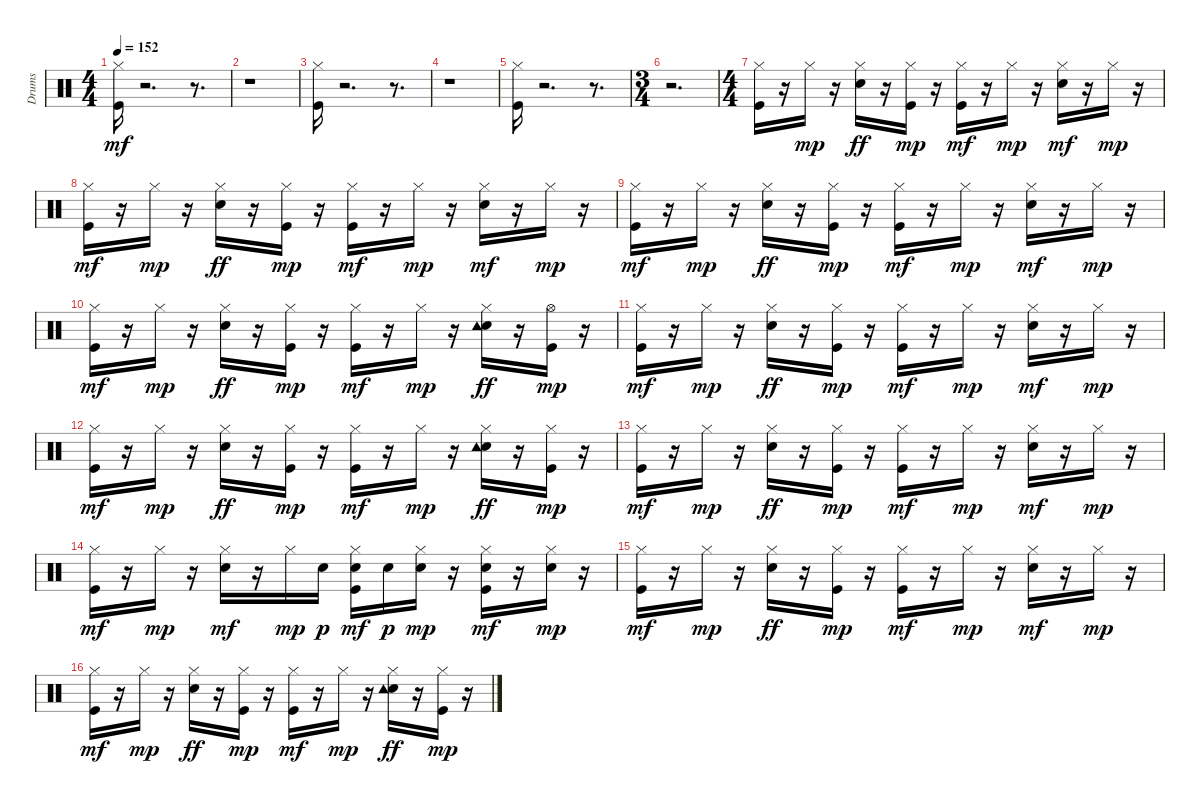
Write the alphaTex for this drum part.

\track ("Drums   " "Drums   ") {instrument percussion}
\staff {score}
\articulation defaults
\ts (4 4)
\tempo 152
\clef neutral
\ks c
("Kick (hit)" "Hi-Hat (closed)").16{dy mf} r.2{d} r.8{d} |
r.1 |
("Kick (hit)" "Hi-Hat (closed)").16 r.2{d} r.8{d} |
r.1 |
("Kick (hit)" "Hi-Hat (closed)").16 r.2{d} r.8{d} |
\ts (3 4)
r.2{d} |
\ts (4 4)
("Kick (hit)" "Hi-Hat (closed)").16 r.16 "Hi-Hat (closed)".16{dy mp} r.16 ("Snare (hit) 2" "Hi-Hat (closed)").16{dy ff} r.16 ("Kick (hit)" "Hi-Hat (closed)").16{dy mp} r.16 ("Kick (hit)" "Hi-Hat (closed)").16{dy mf} r.16 "Hi-Hat (closed)".16{dy mp} r.16 ("Snare (hit) 2" "Hi-Hat (closed)").16{dy mf} r.16 "Hi-Hat (closed)".16{dy mp} r.16 |
("Kick (hit)" "Hi-Hat (closed)").16{dy mf} r.16 "Hi-Hat (closed)".16{dy mp} r.16 ("Snare (hit) 2" "Hi-Hat (closed)").16{dy ff} r.16 ("Kick (hit)" "Hi-Hat (closed)").16{dy mp} r.16 ("Kick (hit)" "Hi-Hat (closed)").16{dy mf} r.16 "Hi-Hat (closed)".16{dy mp} r.16 ("Snare (hit) 2" "Hi-Hat (closed)").16{dy mf} r.16 "Hi-Hat (closed)".16{dy mp} r.16 |
("Kick (hit)" "Hi-Hat (closed)").16{dy mf} r.16 "Hi-Hat (closed)".16{dy mp} r.16 ("Snare (hit) 2" "Hi-Hat (closed)").16{dy ff} r.16 ("Kick (hit)" "Hi-Hat (closed)").16{dy mp} r.16 ("Kick (hit)" "Hi-Hat (closed)").16{dy mf} r.16 "Hi-Hat (closed)".16{dy mp} r.16 ("Snare (hit) 2" "Hi-Hat (closed)").16{dy mf} r.16 "Hi-Hat (closed)".16{dy mp} r.16 |
("Kick (hit)" "Hi-Hat (closed)").16{dy mf} r.16 "Hi-Hat (closed)".16{dy mp} r.16 ("Snare (hit) 2" "Hi-Hat (closed)").16{dy ff} r.16 ("Kick (hit)" "Hi-Hat (closed)").16{dy mp} r.16 ("Kick (hit)" "Hi-Hat (closed)").16{dy mf} r.16 "Hi-Hat (closed)".16{dy mp} r.16 ("Snare (hit) 2" "Hi-Hat (closed)" "Tambourine (hit)").16{dy ff} r.16 ("Kick (hit)" "Hi-Hat (open)").16{dy mp} r.16 |
("Kick (hit)" "Hi-Hat (closed)").16{dy mf} r.16 "Hi-Hat (closed)".16{dy mp} r.16 ("Snare (hit) 2" "Hi-Hat (closed)").16{dy ff} r.16 ("Kick (hit)" "Hi-Hat (closed)").16{dy mp} r.16 ("Kick (hit)" "Hi-Hat (closed)").16{dy mf} r.16 "Hi-Hat (closed)".16{dy mp} r.16 ("Snare (hit) 2" "Hi-Hat (closed)").16{dy mf} r.16 "Hi-Hat (closed)".16{dy mp} r.16 |
("Kick (hit)" "Hi-Hat (closed)").16{dy mf} r.16 "Hi-Hat (closed)".16{dy mp} r.16 ("Snare (hit) 2" "Hi-Hat (closed)").16{dy ff} r.16 ("Kick (hit)" "Hi-Hat (closed)").16{dy mp} r.16 ("Kick (hit)" "Hi-Hat (closed)").16{dy mf} r.16 "Hi-Hat (closed)".16{dy mp} r.16 ("Snare (hit) 2" "Hi-Hat (closed)" "Tambourine (hit)").16{dy ff} r.16 ("Kick (hit)" "Hi-Hat (closed)").16{dy mp} r.16 |
("Kick (hit)" "Hi-Hat (closed)").16{dy mf} r.16 "Hi-Hat (closed)".16{dy mp} r.16 ("Snare (hit) 2" "Hi-Hat (closed)").16{dy ff} r.16 ("Kick (hit)" "Hi-Hat (closed)").16{dy mp} r.16 ("Kick (hit)" "Hi-Hat (closed)").16{dy mf} r.16 "Hi-Hat (closed)".16{dy mp} r.16 ("Snare (hit) 2" "Hi-Hat (closed)").16{dy mf} r.16 "Hi-Hat (closed)".16{dy mp} r.16 |
("Kick (hit)" "Hi-Hat (closed)").16{dy mf} r.16 "Hi-Hat (closed)".16{dy mp} r.16 ("Snare (hit) 2" "Hi-Hat (closed)").16{dy mf} r.16 "Hi-Hat (closed)".16{dy mp} "Snare (hit) 2".16{dy p} ("Kick (hit)" "Snare (hit) 2" "Hi-Hat (closed)").16{dy mf} "Snare (hit) 2".16{dy p} ("Snare (hit) 2" "Hi-Hat (closed)").16{dy mp} r.16 ("Kick (hit)" "Snare (hit) 2" "Hi-Hat (closed)").16{dy mf} r.16 ("Snare (hit) 2" "Hi-Hat (closed)").16{dy mp} r.16 |
("Kick (hit)" "Hi-Hat (closed)").16{dy mf} r.16 "Hi-Hat (closed)".16{dy mp} r.16 ("Snare (hit) 2" "Hi-Hat (closed)").16{dy ff} r.16 ("Kick (hit)" "Hi-Hat (closed)").16{dy mp} r.16 ("Kick (hit)" "Hi-Hat (closed)").16{dy mf} r.16 "Hi-Hat (closed)".16{dy mp} r.16 ("Snare (hit) 2" "Hi-Hat (closed)").16{dy mf} r.16 "Hi-Hat (closed)".16{dy mp} r.16 |
("Kick (hit)" "Hi-Hat (closed)").16{dy mf} r.16 "Hi-Hat (closed)".16{dy mp} r.16 ("Snare (hit) 2" "Hi-Hat (closed)").16{dy ff} r.16 ("Kick (hit)" "Hi-Hat (closed)").16{dy mp} r.16 ("Kick (hit)" "Hi-Hat (closed)").16{dy mf} r.16 "Hi-Hat (closed)".16{dy mp} r.16 ("Snare (hit) 2" "Hi-Hat (closed)" "Tambourine (hit)").16{dy ff} r.16 ("Kick (hit)" "Hi-Hat (closed)").16{dy mp} r.16
